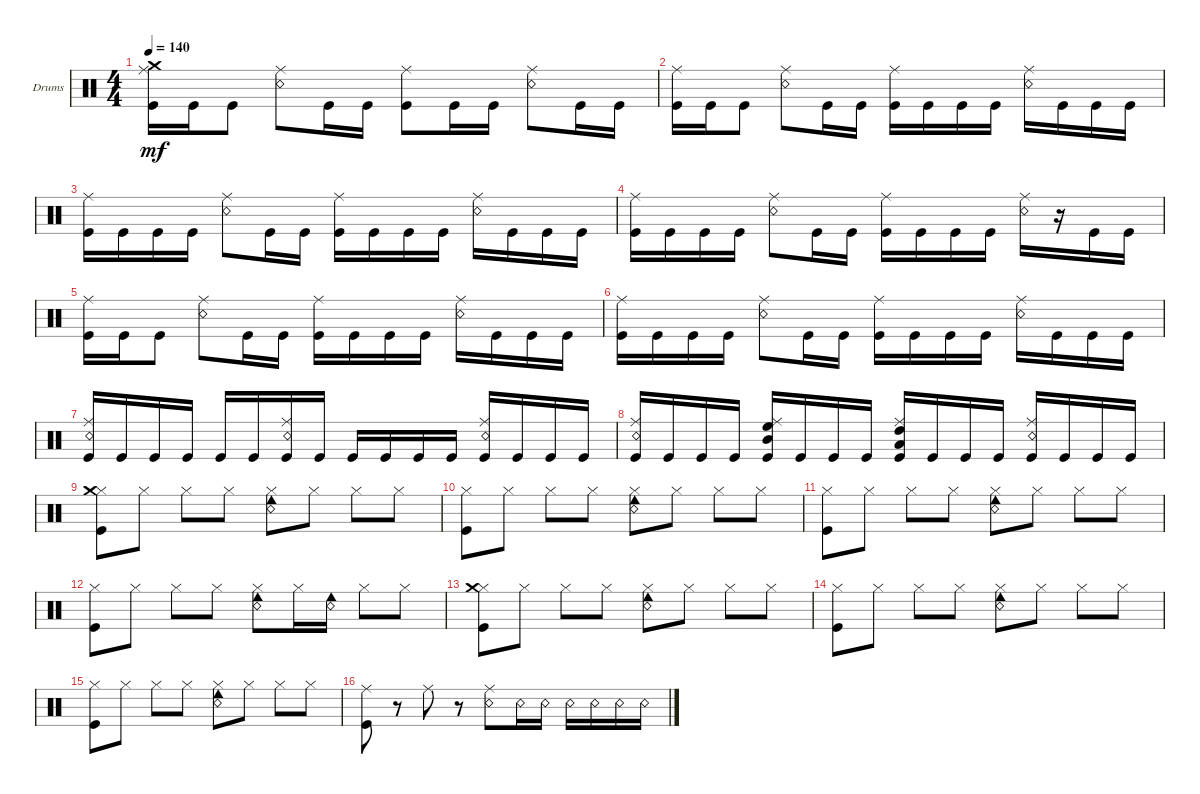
\defaultSystemsLayout 4
\bracketExtendMode groupsimilarinstruments
\firstSystemTrackNameOrientation horizontal
\otherSystemsTrackNameOrientation horizontal
\track ("Drumkit" "Drums") {instrument percussion}
\staff {score}
\articulation defaults
\ts (4 4)
\tempo 140
\clef neutral
\ks c
("Kick (hit)" "Ride (middle)" "Crash medium (hit)").16{dy mf} "Kick (hit)".16 "Kick (hit)".8 ("Snare (rim shot)" "Ride (middle)").8 "Kick (hit)".16 "Kick (hit)".16 ("Kick (hit)" "Ride (middle)").8 "Kick (hit)".16 "Kick (hit)".16 ("Snare (rim shot)" "Ride (middle)").8 "Kick (hit)".16 "Kick (hit)".16 |
("Kick (hit)" "Ride (middle)").16 "Kick (hit)".16 "Kick (hit)".8 ("Snare (rim shot)" "Ride (middle)").8 "Kick (hit)".16 "Kick (hit)".16 ("Kick (hit)" "Ride (middle)").16 "Kick (hit)".16 "Kick (hit)".16 "Kick (hit)".16 ("Snare (rim shot)" "Ride (middle)").16 "Kick (hit)".16 "Kick (hit)".16 "Kick (hit)".16 |
("Kick (hit)" "Ride (middle)").16 "Kick (hit)".16 "Kick (hit)".16 "Kick (hit)".16 ("Snare (rim shot)" "Ride (middle)").8 "Kick (hit)".16 "Kick (hit)".16 ("Kick (hit)" "Ride (middle)").16 "Kick (hit)".16 "Kick (hit)".16 "Kick (hit)".16 ("Snare (rim shot)" "Ride (middle)").16 "Kick (hit)".16 "Kick (hit)".16 "Kick (hit)".16 |
("Kick (hit)" "Ride (middle)").16 "Kick (hit)".16 "Kick (hit)".16 "Kick (hit)".16 ("Snare (rim shot)" "Ride (middle)").8 "Kick (hit)".16 "Kick (hit)".16 ("Kick (hit)" "Ride (middle)").16 "Kick (hit)".16 "Kick (hit)".16 "Kick (hit)".16 ("Snare (rim shot)" "Ride (middle)").16 r.16 "Kick (hit)".16 "Kick (hit)".16 |
("Kick (hit)" "Ride (middle)").16 "Kick (hit)".16 "Kick (hit)".8 ("Snare (rim shot)" "Ride (middle)").8 "Kick (hit)".16 "Kick (hit)".16 ("Kick (hit)" "Ride (middle)").16 "Kick (hit)".16 "Kick (hit)".16 "Kick (hit)".16 ("Snare (rim shot)" "Ride (middle)").16 "Kick (hit)".16 "Kick (hit)".16 "Kick (hit)".16 |
("Kick (hit)" "Ride (middle)").16 "Kick (hit)".16 "Kick (hit)".16 "Kick (hit)".16 ("Snare (rim shot)" "Ride (middle)").8 "Kick (hit)".16 "Kick (hit)".16 ("Kick (hit)" "Ride (middle)").16 "Kick (hit)".16 "Kick (hit)".16 "Kick (hit)".16 ("Snare (rim shot)" "Ride (middle)").16 "Kick (hit)".16 "Kick (hit)".16 "Kick (hit)".16 |
("Kick (hit)" "Ride (middle)" "Snare (rim shot)").16 "Kick (hit)".16 "Kick (hit)".16 "Kick (hit)".16 "Kick (hit)".16 "Kick (hit)".16 ("Kick (hit)" "Ride (middle)" "Snare (rim shot)").16 "Kick (hit)".16 "Kick (hit)".16 "Kick (hit)".16 "Kick (hit)".16 "Kick (hit)".16 ("Kick (hit)" "Ride (middle)" "Snare (rim shot)").16 "Kick (hit)".16 "Kick (hit)".16 "Kick (hit)".16 |
("Kick (hit)" "Ride (middle)" "Snare (rim shot)").16 "Kick (hit)".16 "Kick (hit)".16 "Kick (hit)".16 ("Kick (hit)" "Mid Tom (hit)" "Ride (middle)" "High Floor Tom (hit)").16 "Kick (hit)".16 "Kick (hit)".16 "Kick (hit)".16 ("Kick (hit)" "Low Tom (hit)" "Ride (middle)" "High Tom (hit)").16 "Kick (hit)".16 "Kick (hit)".16 "Kick (hit)".16 ("Kick (hit)" "Snare (rim shot)" "Ride (middle)").16 "Kick (hit)".16 "Kick (hit)".16 "Kick (hit)".16 |
("Hi-Hat (closed)" "Kick (hit)" "Crash medium (hit)").8 "Hi-Hat (closed)".8 "Hi-Hat (closed)".8 "Hi-Hat (closed)".8 ("Hi-Hat (closed)" "Cowbell low (hit)" "Snare (rim shot)").8 "Hi-Hat (closed)".8 "Hi-Hat (closed)".8 "Hi-Hat (closed)".8 |
("Hi-Hat (closed)" "Kick (hit)").8 "Hi-Hat (closed)".8 "Hi-Hat (closed)".8 "Hi-Hat (closed)".8 ("Hi-Hat (closed)" "Cowbell low (hit)" "Snare (rim shot)").8 "Hi-Hat (closed)".8 "Hi-Hat (closed)".8 "Hi-Hat (closed)".8 |
("Hi-Hat (closed)" "Kick (hit)").8 "Hi-Hat (closed)".8 "Hi-Hat (closed)".8 "Hi-Hat (closed)".8 ("Hi-Hat (closed)" "Cowbell low (hit)" "Snare (rim shot)").8 "Hi-Hat (closed)".8 "Hi-Hat (closed)".8 "Hi-Hat (closed)".8 |
("Hi-Hat (closed)" "Kick (hit)").8 "Hi-Hat (closed)".8 "Hi-Hat (closed)".8 "Hi-Hat (closed)".8 ("Hi-Hat (closed)" "Cowbell low (hit)" "Snare (rim shot)").8 "Hi-Hat (closed)".16 ("Cowbell low (hit)" "Snare (rim shot)").16 "Hi-Hat (closed)".8 "Hi-Hat (closed)".8 |
("Hi-Hat (closed)" "Kick (hit)" "Crash medium (hit)").8 "Hi-Hat (closed)".8 "Hi-Hat (closed)".8 "Hi-Hat (closed)".8 ("Hi-Hat (closed)" "Cowbell low (hit)" "Snare (rim shot)").8 "Hi-Hat (closed)".8 "Hi-Hat (closed)".8 "Hi-Hat (closed)".8 |
("Hi-Hat (closed)" "Kick (hit)").8 "Hi-Hat (closed)".8 "Hi-Hat (closed)".8 "Hi-Hat (closed)".8 ("Hi-Hat (closed)" "Cowbell low (hit)" "Snare (rim shot)").8 "Hi-Hat (closed)".8 "Hi-Hat (closed)".8 "Hi-Hat (closed)".8 |
("Hi-Hat (closed)" "Kick (hit)").8 "Hi-Hat (closed)".8 "Hi-Hat (closed)".8 "Hi-Hat (closed)".8 ("Hi-Hat (closed)" "Cowbell low (hit)" "Snare (rim shot)").8 "Hi-Hat (closed)".8 "Hi-Hat (closed)".8 "Hi-Hat (closed)".8 |
("Kick (hit)" "Ride (middle)").8 r.8 "Ride (middle)".8 r.8 ("Snare (rim shot)" "Ride (middle)").8 "Snare (rim shot)".16 "Snare (rim shot)".16 "Snare (rim shot)".16 "Snare (rim shot)".16 "Snare (rim shot)".16 "Snare (rim shot)".16
